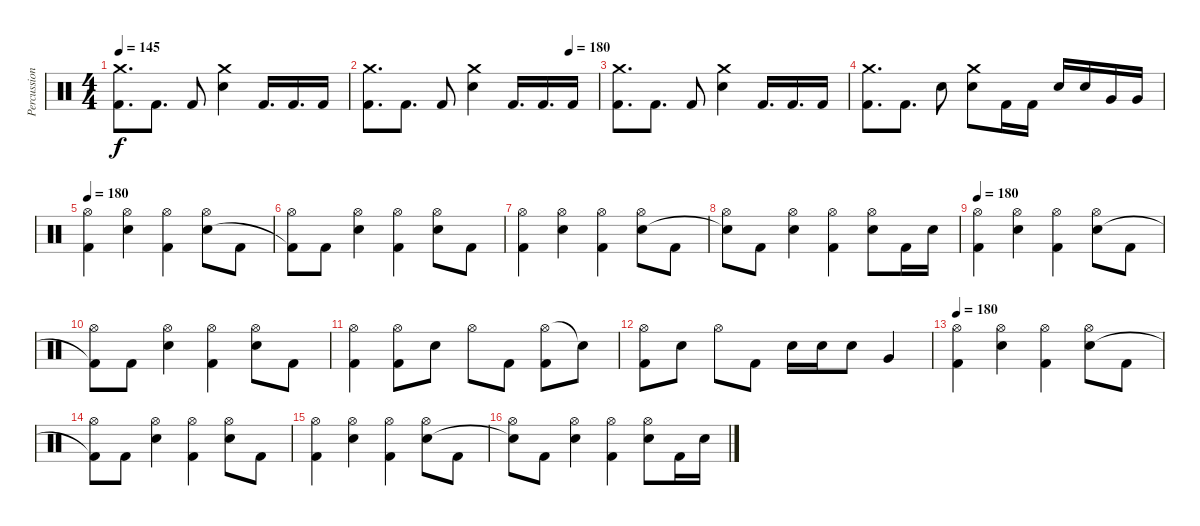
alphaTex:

\track ("Percussions" "Percussion") {instrument percussion}
\staff {score}
\articulation defaults
\ts (4 4)
\tempo 145
\clef neutral
\ks c
("Crash medium (hit)" "Kick (hit) 2").8{d dy f} "Kick (hit) 2".8{d} "Kick (hit) 2".8 ("Crash medium (hit)" "Electric Snare (hit)").4 "Kick (hit) 2".16{d} "Kick (hit) 2".16{d} "Kick (hit) 2".16 |
\tempo (180 0.875)
("Crash medium (hit)" "Kick (hit) 2").8{d} "Kick (hit) 2".8{d} "Kick (hit) 2".8 ("Crash medium (hit)" "Electric Snare (hit)").4 "Kick (hit) 2".16{d} "Kick (hit) 2".16{d} "Kick (hit) 2".16 |
("Crash medium (hit)" "Kick (hit) 2").8{d} "Kick (hit) 2".8{d} "Kick (hit) 2".8 ("Crash medium (hit)" "Electric Snare (hit)").4 "Kick (hit) 2".16{d} "Kick (hit) 2".16{d} "Kick (hit) 2".16 |
("Crash medium (hit)" "Kick (hit) 2").8{d} "Kick (hit) 2".8{d} "Electric Snare (hit)".8 ("Crash medium (hit)" "Electric Snare (hit)").8 "Kick (hit) 2".16 "Kick (hit) 2".16 "Electric Snare (hit)".16 "Electric Snare (hit)".16 "Very Low Tom (hit)".16 "Very Low Tom (hit)".16 |
\tempo 180
("Hi-Hat (open)" "Kick (hit) 2").4 ("Hi-Hat (open)" "Electric Snare (hit)").4 ("Hi-Hat (open)" "Kick (hit) 2").4 ("Hi-Hat (open)" "Electric Snare (hit)").8 "Kick (hit) 2".8 |
("Hi-Hat (open)" "Kick (hit) 2"{t}).8 "Kick (hit) 2".8 ("Hi-Hat (open)" "Electric Snare (hit)").4 ("Hi-Hat (open)" "Kick (hit) 2").4 ("Hi-Hat (open)" "Electric Snare (hit)").8 "Kick (hit) 2".8 |
("Hi-Hat (open)" "Kick (hit) 2").4 ("Hi-Hat (open)" "Electric Snare (hit)").4 ("Hi-Hat (open)" "Kick (hit) 2").4 ("Hi-Hat (open)" "Electric Snare (hit)").8 "Kick (hit) 2".8 |
("Hi-Hat (open)" "Snare (hit)"{t}).8 "Kick (hit) 2".8 ("Hi-Hat (open)" "Electric Snare (hit)").4 ("Hi-Hat (open)" "Kick (hit) 2").4 ("Hi-Hat (open)" "Electric Snare (hit)").8 "Kick (hit) 2".16 "Electric Snare (hit)".16 |
\tempo 180
("Hi-Hat (open)" "Kick (hit) 2").4 ("Hi-Hat (open)" "Electric Snare (hit)").4 ("Hi-Hat (open)" "Kick (hit) 2").4 ("Hi-Hat (open)" "Electric Snare (hit)").8 "Kick (hit) 2".8 |
("Hi-Hat (open)" "Kick (hit) 2"{t}).8 "Kick (hit) 2".8 ("Hi-Hat (open)" "Electric Snare (hit)").4 ("Hi-Hat (open)" "Kick (hit) 2").4 ("Hi-Hat (open)" "Electric Snare (hit)").8 "Kick (hit) 2".8 |
("Hi-Hat (open)" "Kick (hit) 2").4 ("Hi-Hat (open)" "Kick (hit) 2").8 "Electric Snare (hit)".8 "Hi-Hat (open)".8 "Kick (hit) 2".8 ("Hi-Hat (open)" "Kick (hit) 2").8 "Snare (hit)"{t}.8 |
("Hi-Hat (open)" "Kick (hit) 2").8 "Electric Snare (hit)".8 "Hi-Hat (open)".8 "Kick (hit) 2".8 "Electric Snare (hit)".16 "Electric Snare (hit)".16 "Electric Snare (hit)".8 "Very Low Tom (hit)".4 |
\tempo 180
("Hi-Hat (open)" "Kick (hit) 2").4 ("Hi-Hat (open)" "Electric Snare (hit)").4 ("Hi-Hat (open)" "Kick (hit) 2").4 ("Hi-Hat (open)" "Electric Snare (hit)").8 "Kick (hit) 2".8 |
("Hi-Hat (open)" "Kick (hit) 2"{t}).8 "Kick (hit) 2".8 ("Hi-Hat (open)" "Electric Snare (hit)").4 ("Hi-Hat (open)" "Kick (hit) 2").4 ("Hi-Hat (open)" "Electric Snare (hit)").8 "Kick (hit) 2".8 |
("Hi-Hat (open)" "Kick (hit) 2").4 ("Hi-Hat (open)" "Electric Snare (hit)").4 ("Hi-Hat (open)" "Kick (hit) 2").4 ("Hi-Hat (open)" "Electric Snare (hit)").8 "Kick (hit) 2".8 |
("Hi-Hat (open)" "Snare (hit)"{t}).8 "Kick (hit) 2".8 ("Hi-Hat (open)" "Electric Snare (hit)").4 ("Hi-Hat (open)" "Kick (hit) 2").4 ("Hi-Hat (open)" "Electric Snare (hit)").8 "Kick (hit) 2".16 "Electric Snare (hit)".16
